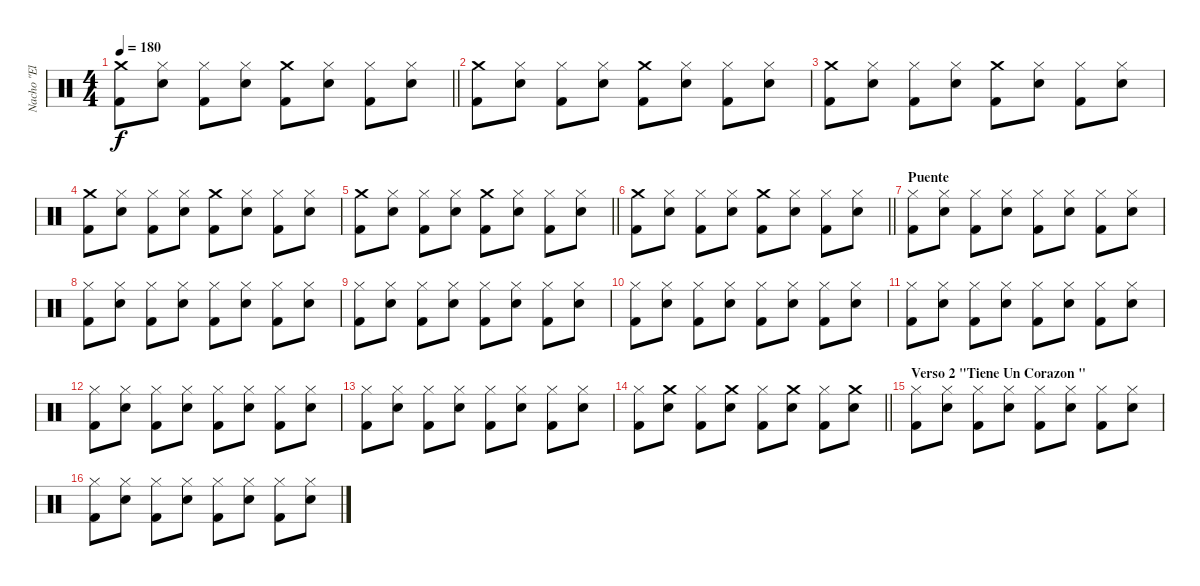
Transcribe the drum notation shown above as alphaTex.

\track ("Nacho \"El Implacable\"Gonzales" "Nacho \"El ") {instrument percussion}
\staff {score}
\articulation defaults
\ts (4 4)
\tempo 180
\clef neutral
\barLineRight lightlight
\ks c
("Crash medium (hit)" "Kick (hit) 2").8{dy f} ("Hi-Hat (closed)" "Electric Snare (hit)").8 ("Hi-Hat (closed)" "Kick (hit) 2").8 ("Hi-Hat (closed)" "Electric Snare (hit)").8 ("Crash medium (hit)" "Kick (hit) 2").8 ("Hi-Hat (closed)" "Electric Snare (hit)").8 ("Hi-Hat (closed)" "Kick (hit) 2").8 ("Hi-Hat (closed)" "Electric Snare (hit)").8 |
("Crash medium (hit)" "Kick (hit) 2").8 ("Hi-Hat (closed)" "Electric Snare (hit)").8 ("Hi-Hat (closed)" "Kick (hit) 2").8 ("Hi-Hat (closed)" "Electric Snare (hit)").8 ("Crash medium (hit)" "Kick (hit) 2").8 ("Hi-Hat (closed)" "Electric Snare (hit)").8 ("Hi-Hat (closed)" "Kick (hit) 2").8 ("Hi-Hat (closed)" "Electric Snare (hit)").8 |
("Crash medium (hit)" "Kick (hit) 2").8 ("Hi-Hat (closed)" "Electric Snare (hit)").8 ("Hi-Hat (closed)" "Kick (hit) 2").8 ("Hi-Hat (closed)" "Electric Snare (hit)").8 ("Crash medium (hit)" "Kick (hit) 2").8 ("Hi-Hat (closed)" "Electric Snare (hit)").8 ("Hi-Hat (closed)" "Kick (hit) 2").8 ("Hi-Hat (closed)" "Electric Snare (hit)").8 |
("Crash medium (hit)" "Kick (hit) 2").8 ("Hi-Hat (closed)" "Electric Snare (hit)").8 ("Hi-Hat (closed)" "Kick (hit) 2").8 ("Hi-Hat (closed)" "Electric Snare (hit)").8 ("Crash medium (hit)" "Kick (hit) 2").8 ("Hi-Hat (closed)" "Electric Snare (hit)").8 ("Hi-Hat (closed)" "Kick (hit) 2").8 ("Hi-Hat (closed)" "Electric Snare (hit)").8 |
\barLineRight lightlight
("Crash medium (hit)" "Kick (hit) 2").8 ("Hi-Hat (closed)" "Electric Snare (hit)").8 ("Hi-Hat (closed)" "Kick (hit) 2").8 ("Hi-Hat (closed)" "Electric Snare (hit)").8 ("Crash medium (hit)" "Kick (hit) 2").8 ("Hi-Hat (closed)" "Electric Snare (hit)").8 ("Hi-Hat (closed)" "Kick (hit) 2").8 ("Hi-Hat (closed)" "Electric Snare (hit)").8 |
\barLineRight lightlight
("Crash medium (hit)" "Kick (hit) 2").8 ("Hi-Hat (closed)" "Electric Snare (hit)").8 ("Hi-Hat (closed)" "Kick (hit) 2").8 ("Hi-Hat (closed)" "Electric Snare (hit)").8 ("Crash medium (hit)" "Kick (hit) 2").8 ("Hi-Hat (closed)" "Electric Snare (hit)").8 ("Hi-Hat (closed)" "Kick (hit) 2").8 ("Hi-Hat (closed)" "Electric Snare (hit)").8 |
\section ("" "Puente")
("Hi-Hat (closed)" "Kick (hit) 2").8 ("Hi-Hat (closed)" "Electric Snare (hit)").8 ("Hi-Hat (closed)" "Kick (hit) 2").8 ("Hi-Hat (closed)" "Electric Snare (hit)").8 ("Hi-Hat (closed)" "Kick (hit) 2").8 ("Hi-Hat (closed)" "Electric Snare (hit)").8 ("Hi-Hat (closed)" "Kick (hit) 2").8 ("Hi-Hat (closed)" "Electric Snare (hit)").8 |
("Hi-Hat (closed)" "Kick (hit) 2").8 ("Hi-Hat (closed)" "Electric Snare (hit)").8 ("Hi-Hat (closed)" "Kick (hit) 2").8 ("Hi-Hat (closed)" "Electric Snare (hit)").8 ("Hi-Hat (closed)" "Kick (hit) 2").8 ("Hi-Hat (closed)" "Electric Snare (hit)").8 ("Hi-Hat (closed)" "Kick (hit) 2").8 ("Hi-Hat (closed)" "Electric Snare (hit)").8 |
("Hi-Hat (closed)" "Kick (hit) 2").8 ("Hi-Hat (closed)" "Electric Snare (hit)").8 ("Hi-Hat (closed)" "Kick (hit) 2").8 ("Hi-Hat (closed)" "Electric Snare (hit)").8 ("Hi-Hat (closed)" "Kick (hit) 2").8 ("Hi-Hat (closed)" "Electric Snare (hit)").8 ("Hi-Hat (closed)" "Kick (hit) 2").8 ("Hi-Hat (closed)" "Electric Snare (hit)").8 |
("Hi-Hat (closed)" "Kick (hit) 2").8 ("Hi-Hat (closed)" "Electric Snare (hit)").8 ("Hi-Hat (closed)" "Kick (hit) 2").8 ("Hi-Hat (closed)" "Electric Snare (hit)").8 ("Hi-Hat (closed)" "Kick (hit) 2").8 ("Hi-Hat (closed)" "Electric Snare (hit)").8 ("Hi-Hat (closed)" "Kick (hit) 2").8 ("Hi-Hat (closed)" "Electric Snare (hit)").8 |
("Hi-Hat (closed)" "Kick (hit) 2").8 ("Hi-Hat (closed)" "Electric Snare (hit)").8 ("Hi-Hat (closed)" "Kick (hit) 2").8 ("Hi-Hat (closed)" "Electric Snare (hit)").8 ("Hi-Hat (closed)" "Kick (hit) 2").8 ("Hi-Hat (closed)" "Electric Snare (hit)").8 ("Hi-Hat (closed)" "Kick (hit) 2").8 ("Hi-Hat (closed)" "Electric Snare (hit)").8 |
("Hi-Hat (closed)" "Kick (hit) 2").8 ("Hi-Hat (closed)" "Electric Snare (hit)").8 ("Hi-Hat (closed)" "Kick (hit) 2").8 ("Hi-Hat (closed)" "Electric Snare (hit)").8 ("Hi-Hat (closed)" "Kick (hit) 2").8 ("Hi-Hat (closed)" "Electric Snare (hit)").8 ("Hi-Hat (closed)" "Kick (hit) 2").8 ("Hi-Hat (closed)" "Electric Snare (hit)").8 |
("Hi-Hat (closed)" "Kick (hit) 2").8 ("Hi-Hat (closed)" "Electric Snare (hit)").8 ("Hi-Hat (closed)" "Kick (hit) 2").8 ("Hi-Hat (closed)" "Electric Snare (hit)").8 ("Hi-Hat (closed)" "Kick (hit) 2").8 ("Hi-Hat (closed)" "Electric Snare (hit)").8 ("Hi-Hat (closed)" "Kick (hit) 2").8 ("Hi-Hat (closed)" "Electric Snare (hit)").8 |
\barLineRight lightlight
("Hi-Hat (closed)" "Kick (hit) 2").8 ("Crash medium (hit)" "Electric Snare (hit)").8 ("Hi-Hat (closed)" "Kick (hit) 2").8 ("Crash medium (hit)" "Electric Snare (hit)").8 ("Hi-Hat (closed)" "Kick (hit) 2").8 ("Crash medium (hit)" "Electric Snare (hit)").8 ("Hi-Hat (closed)" "Kick (hit) 2").8 ("Crash medium (hit)" "Electric Snare (hit)").8 |
\section ("" "Verso 2 \"Tiene Un Corazon \"")
("Hi-Hat (closed)" "Kick (hit) 2").8 ("Hi-Hat (closed)" "Electric Snare (hit)").8 ("Hi-Hat (closed)" "Kick (hit) 2").8 ("Hi-Hat (closed)" "Electric Snare (hit)").8 ("Hi-Hat (closed)" "Kick (hit) 2").8 ("Hi-Hat (closed)" "Electric Snare (hit)").8 ("Hi-Hat (closed)" "Kick (hit) 2").8 ("Hi-Hat (closed)" "Electric Snare (hit)").8 |
("Hi-Hat (closed)" "Kick (hit) 2").8 ("Hi-Hat (closed)" "Electric Snare (hit)").8 ("Hi-Hat (closed)" "Kick (hit) 2").8 ("Hi-Hat (closed)" "Electric Snare (hit)").8 ("Hi-Hat (closed)" "Kick (hit) 2").8 ("Hi-Hat (closed)" "Electric Snare (hit)").8 ("Hi-Hat (closed)" "Kick (hit) 2").8 ("Hi-Hat (closed)" "Electric Snare (hit)").8
